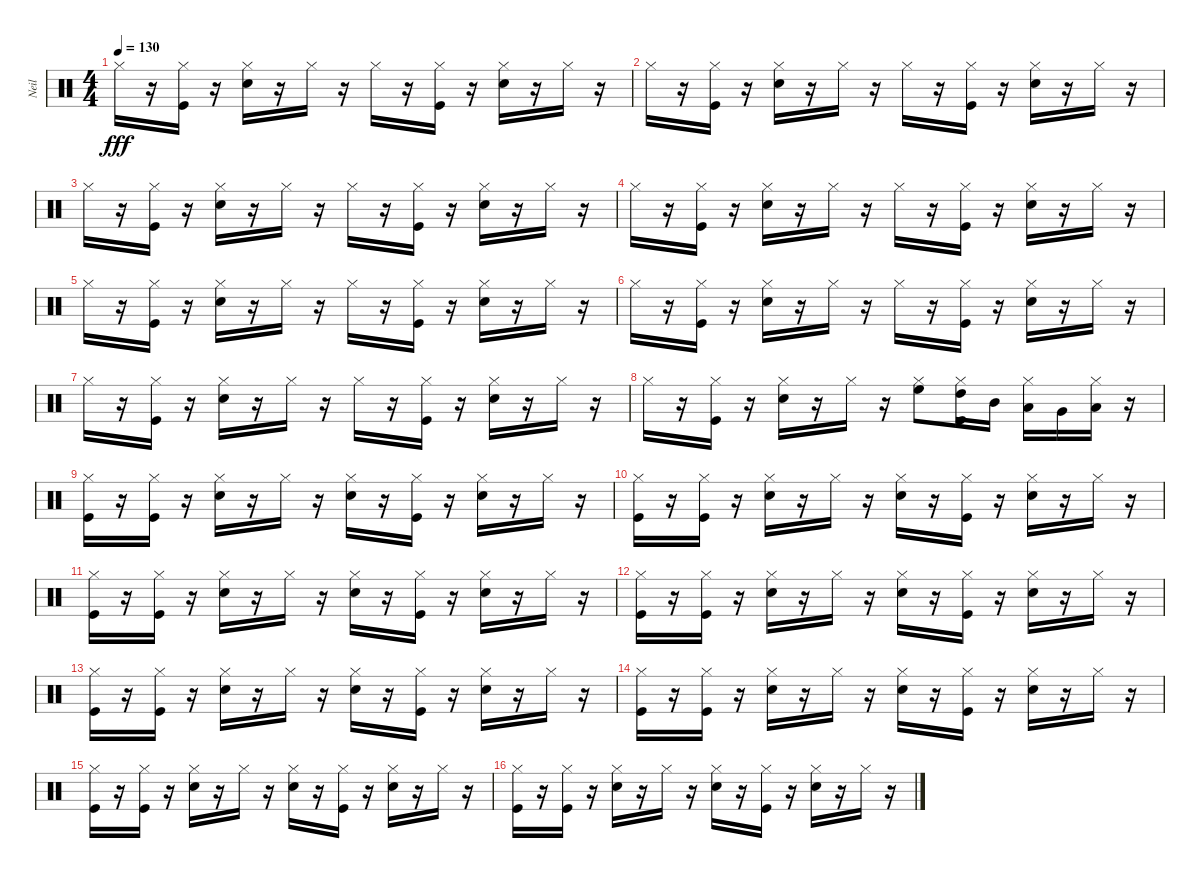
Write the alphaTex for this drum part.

\track ("Neil" "Neil") {instrument percussion}
\staff {score}
\articulation defaults
\ts (4 4)
\tempo 130
\clef neutral
\ks c "Hi-Hat (closed)".16{dy fff}
r.16 ("Kick (hit)" "Hi-Hat (closed)").16 r.16 ("Hi-Hat (closed)" "Electric Snare (hit)").16 r.16 "Hi-Hat (closed)".16 r.16 "Hi-Hat (closed)".16 r.16 ("Hi-Hat (closed)" "Kick (hit)").16 r.16 ("Hi-Hat (closed)" "Electric Snare (hit)").16 r.16 "Hi-Hat (closed)".16 r.16 |
"Hi-Hat (closed)".16 r.16 ("Kick (hit)" "Hi-Hat (closed)").16 r.16 ("Hi-Hat (closed)" "Electric Snare (hit)").16 r.16 "Hi-Hat (closed)".16 r.16 "Hi-Hat (closed)".16 r.16 ("Hi-Hat (closed)" "Kick (hit)").16 r.16 ("Hi-Hat (closed)" "Electric Snare (hit)").16 r.16 "Hi-Hat (closed)".16 r.16 |
"Hi-Hat (closed)".16 r.16 ("Kick (hit)" "Hi-Hat (closed)").16 r.16 ("Hi-Hat (closed)" "Electric Snare (hit)").16 r.16 "Hi-Hat (closed)".16 r.16 "Hi-Hat (closed)".16 r.16 ("Hi-Hat (closed)" "Kick (hit)").16 r.16 ("Hi-Hat (closed)" "Electric Snare (hit)").16 r.16 "Hi-Hat (closed)".16 r.16 |
"Hi-Hat (closed)".16 r.16 ("Kick (hit)" "Hi-Hat (closed)").16 r.16 ("Hi-Hat (closed)" "Electric Snare (hit)").16 r.16 "Hi-Hat (closed)".16 r.16 "Hi-Hat (closed)".16 r.16 ("Hi-Hat (closed)" "Kick (hit)").16 r.16 ("Hi-Hat (closed)" "Electric Snare (hit)").16 r.16 "Hi-Hat (closed)".16 r.16 |
"Hi-Hat (closed)".16 r.16 ("Kick (hit)" "Hi-Hat (closed)").16 r.16 ("Hi-Hat (closed)" "Electric Snare (hit)").16 r.16 "Hi-Hat (closed)".16 r.16 "Hi-Hat (closed)".16 r.16 ("Hi-Hat (closed)" "Kick (hit)").16 r.16 ("Hi-Hat (closed)" "Electric Snare (hit)").16 r.16 "Hi-Hat (closed)".16 r.16 |
"Hi-Hat (closed)".16 r.16 ("Kick (hit)" "Hi-Hat (closed)").16 r.16 ("Hi-Hat (closed)" "Electric Snare (hit)").16 r.16 "Hi-Hat (closed)".16 r.16 "Hi-Hat (closed)".16 r.16 ("Hi-Hat (closed)" "Kick (hit)").16 r.16 ("Hi-Hat (closed)" "Electric Snare (hit)").16 r.16 "Hi-Hat (closed)".16 r.16 |
"Hi-Hat (closed)".16 r.16 ("Kick (hit)" "Hi-Hat (closed)").16 r.16 ("Hi-Hat (closed)" "Electric Snare (hit)").16 r.16 "Hi-Hat (closed)".16 r.16 "Hi-Hat (closed)".16 r.16 ("Hi-Hat (closed)" "Kick (hit)").16 r.16 ("Hi-Hat (closed)" "Electric Snare (hit)").16 r.16 "Hi-Hat (closed)".16 r.16 |
"Hi-Hat (closed)".16 r.16 ("Kick (hit)" "Hi-Hat (closed)").16 r.16 ("Hi-Hat (closed)" "Electric Snare (hit)").16 r.16 "Hi-Hat (closed)".16 r.16 ("Hi-Hat (closed)" "High Floor Tom (hit)").8 ("Hi-Hat (closed)" "High Tom (hit)" "Kick (hit)").16 "Mid Tom (hit)".16 ("Hi-Hat (closed)" "Low Tom (hit)").16 "Very Low Tom (hit)".16 ("Hi-Hat (closed)" "Low Floor Tom (hit)").16 r.16 |
("Hi-Hat (closed)" "Kick (hit)").16 r.16 ("Kick (hit)" "Hi-Hat (closed)").16 r.16 ("Hi-Hat (closed)" "Electric Snare (hit)").16 r.16 "Hi-Hat (closed)".16 r.16 ("Hi-Hat (closed)" "Electric Snare (hit)").16 r.16 ("Hi-Hat (closed)" "Kick (hit)").16 r.16 ("Hi-Hat (closed)" "Electric Snare (hit)").16 r.16 "Hi-Hat (closed)".16 r.16 |
("Hi-Hat (closed)" "Kick (hit)").16 r.16 ("Kick (hit)" "Hi-Hat (closed)").16 r.16 ("Hi-Hat (closed)" "Electric Snare (hit)").16 r.16 "Hi-Hat (closed)".16 r.16 ("Hi-Hat (closed)" "Electric Snare (hit)").16 r.16 ("Hi-Hat (closed)" "Kick (hit)").16 r.16 ("Hi-Hat (closed)" "Electric Snare (hit)").16 r.16 "Hi-Hat (closed)".16 r.16 |
("Hi-Hat (closed)" "Kick (hit)").16 r.16 ("Kick (hit)" "Hi-Hat (closed)").16 r.16 ("Hi-Hat (closed)" "Electric Snare (hit)").16 r.16 "Hi-Hat (closed)".16 r.16 ("Hi-Hat (closed)" "Electric Snare (hit)").16 r.16 ("Hi-Hat (closed)" "Kick (hit)").16 r.16 ("Hi-Hat (closed)" "Electric Snare (hit)").16 r.16 "Hi-Hat (closed)".16 r.16 |
("Hi-Hat (closed)" "Kick (hit)").16 r.16 ("Kick (hit)" "Hi-Hat (closed)").16 r.16 ("Hi-Hat (closed)" "Electric Snare (hit)").16 r.16 "Hi-Hat (closed)".16 r.16 ("Hi-Hat (closed)" "Electric Snare (hit)").16 r.16 ("Hi-Hat (closed)" "Kick (hit)").16 r.16 ("Hi-Hat (closed)" "Electric Snare (hit)").16 r.16 "Hi-Hat (closed)".16 r.16 |
("Hi-Hat (closed)" "Kick (hit)").16 r.16 ("Kick (hit)" "Hi-Hat (closed)").16 r.16 ("Hi-Hat (closed)" "Electric Snare (hit)").16 r.16 "Hi-Hat (closed)".16 r.16 ("Hi-Hat (closed)" "Electric Snare (hit)").16 r.16 ("Hi-Hat (closed)" "Kick (hit)").16 r.16 ("Hi-Hat (closed)" "Electric Snare (hit)").16 r.16 "Hi-Hat (closed)".16 r.16 |
("Hi-Hat (closed)" "Kick (hit)").16 r.16 ("Kick (hit)" "Hi-Hat (closed)").16 r.16 ("Hi-Hat (closed)" "Electric Snare (hit)").16 r.16 "Hi-Hat (closed)".16 r.16 ("Hi-Hat (closed)" "Electric Snare (hit)").16 r.16 ("Hi-Hat (closed)" "Kick (hit)").16 r.16 ("Hi-Hat (closed)" "Electric Snare (hit)").16 r.16 "Hi-Hat (closed)".16 r.16 |
("Hi-Hat (closed)" "Kick (hit)").16 r.16 ("Kick (hit)" "Hi-Hat (closed)").16 r.16 ("Hi-Hat (closed)" "Electric Snare (hit)").16 r.16 "Hi-Hat (closed)".16 r.16 ("Hi-Hat (closed)" "Electric Snare (hit)").16 r.16 ("Hi-Hat (closed)" "Kick (hit)").16 r.16 ("Hi-Hat (closed)" "Electric Snare (hit)").16 r.16 "Hi-Hat (closed)".16 r.16 |
("Hi-Hat (closed)" "Kick (hit)").16 r.16 ("Kick (hit)" "Hi-Hat (closed)").16 r.16 ("Hi-Hat (closed)" "Electric Snare (hit)").16 r.16 "Hi-Hat (closed)".16 r.16 ("Hi-Hat (closed)" "Electric Snare (hit)").16 r.16 ("Hi-Hat (closed)" "Kick (hit)").16 r.16 ("Hi-Hat (closed)" "Electric Snare (hit)").16 r.16 "Hi-Hat (closed)".16 r.16
